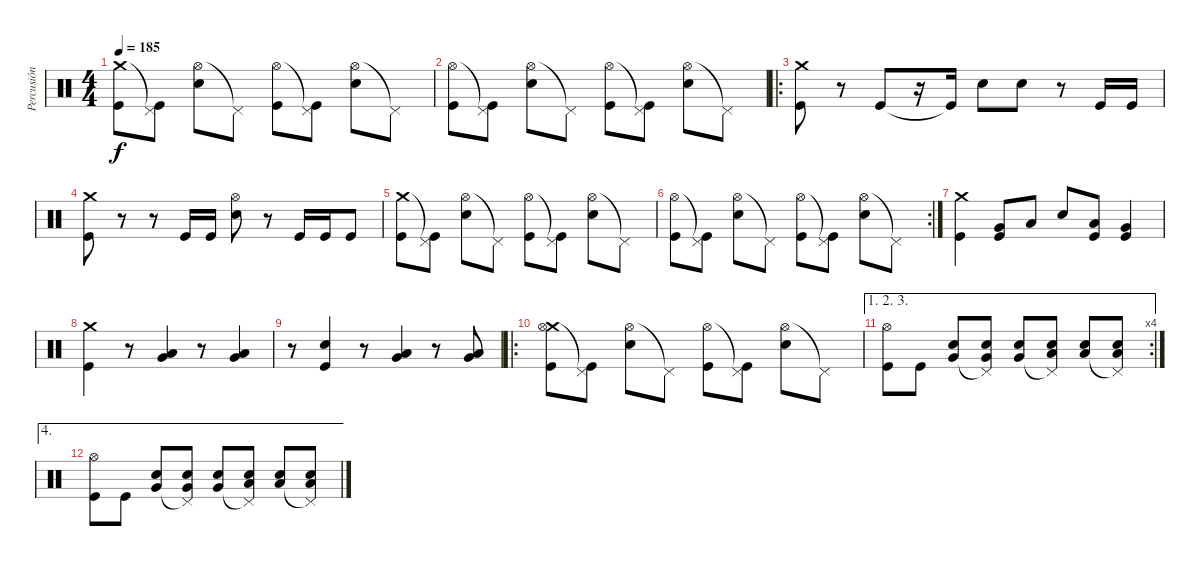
\track ("Percusión" "Percusión") {instrument percussion}
\staff {score}
\articulation defaults
\ts (4 4)
\tempo 185
\clef neutral
\ks c
("Crash medium (hit)" "Kick (hit)").8{dy f} ("Pedal Hi-Hat (hit)"{t} "Kick (hit)").8 ("Hi-Hat (open)" "Electric Snare (hit)").8 "Pedal Hi-Hat (hit)"{t}.8 ("Hi-Hat (open)" "Kick (hit)").8 ("Pedal Hi-Hat (hit)"{t} "Kick (hit)").8 ("Hi-Hat (open)" "Electric Snare (hit)").8 "Pedal Hi-Hat (hit)"{t}.8 |
("Hi-Hat (open)" "Kick (hit)").8 ("Pedal Hi-Hat (hit)"{t} "Kick (hit)").8 ("Hi-Hat (open)" "Electric Snare (hit)").8 "Pedal Hi-Hat (hit)"{t}.8 ("Hi-Hat (open)" "Kick (hit)").8 ("Pedal Hi-Hat (hit)"{t} "Kick (hit)").8 ("Hi-Hat (open)" "Electric Snare (hit)").8 "Pedal Hi-Hat (hit)"{t}.8 |
\ro
("Crash medium (hit)" "Kick (hit)").8 r.8 "Kick (hit)".8 r.16 "Kick (hit)"{t}.16 "Electric Snare (hit)".8 "Electric Snare (hit)".8 r.8 "Kick (hit)".16 "Kick (hit)".16 |
("Crash medium (hit)" "Kick (hit)").8 r.8 r.8 "Kick (hit)".16 "Kick (hit)".16 ("Hi-Hat (open)" "Electric Snare (hit)").8 r.8 "Kick (hit)".16 "Kick (hit)".16 "Kick (hit)".8 |
("Crash medium (hit)" "Kick (hit)").8 ("Pedal Hi-Hat (hit)"{t} "Kick (hit)").8 ("Hi-Hat (open)" "Electric Snare (hit)").8 "Pedal Hi-Hat (hit)"{t}.8 ("Hi-Hat (open)" "Kick (hit)").8 ("Pedal Hi-Hat (hit)"{t} "Kick (hit)").8 ("Hi-Hat (open)" "Electric Snare (hit)").8 "Pedal Hi-Hat (hit)"{t}.8 |
\rc 2
("Hi-Hat (open)" "Kick (hit)").8 ("Pedal Hi-Hat (hit)"{t} "Kick (hit)").8 ("Hi-Hat (open)" "Electric Snare (hit)").8 "Pedal Hi-Hat (hit)"{t}.8 ("Hi-Hat (open)" "Kick (hit)").8 ("Pedal Hi-Hat (hit)"{t} "Kick (hit)").8 ("Hi-Hat (open)" "Electric Snare (hit)").8 "Pedal Hi-Hat (hit)"{t}.8 |
("Crash medium (hit)" "Kick (hit)").4 ("Very Low Tom (hit)" "Kick (hit)").8 "Low Floor Tom (hit)".8 "Electric Snare (hit)".8 ("Low Floor Tom (hit)" "Kick (hit)").8 ("Very Low Tom (hit)" "Kick (hit)").4 |
("Crash medium (hit)" "Kick (hit)").4 r.8 ("Very Low Tom (hit)" "Low Floor Tom (hit)").4 r.8 ("Very Low Tom (hit)" "Low Floor Tom (hit)").4 |
r.8 ("Electric Snare (hit)" "Kick (hit)").4 r.8 ("Very Low Tom (hit)" "Low Floor Tom (hit)").4 r.8 ("Very Low Tom (hit)" "Low Floor Tom (hit)").8 |
\ro
("Crash medium (hit)" "Hi-Hat (open)" "Kick (hit)").8 ("Pedal Hi-Hat (hit)"{t} "Kick (hit)").8 ("Hi-Hat (open)" "Electric Snare (hit)").8 "Pedal Hi-Hat (hit)"{t}.8 ("Hi-Hat (open)" "Kick (hit)").8 ("Pedal Hi-Hat (hit)"{t} "Kick (hit)").8 ("Hi-Hat (open)" "Electric Snare (hit)").8 "Pedal Hi-Hat (hit)"{t}.8 |
\ae (1 2 3)
\rc 4
("Hi-Hat (open)" "Kick (hit)").8 "Kick (hit)".8 ("Very Low Tom (hit)" "Electric Snare (hit)").8 ("Pedal Hi-Hat (hit)"{t} "Very Low Tom (hit)" "Electric Snare (hit)").8 ("Very Low Tom (hit)" "Electric Snare (hit)").8 ("Pedal Hi-Hat (hit)"{t} "Low Floor Tom (hit)" "Electric Snare (hit)").8 ("Low Floor Tom (hit)" "Electric Snare (hit)").8 ("Pedal Hi-Hat (hit)"{t} "Low Floor Tom (hit)" "Electric Snare (hit)").8 |
\ae 4
("Hi-Hat (open)" "Kick (hit)").8 "Kick (hit)".8 ("Very Low Tom (hit)" "Electric Snare (hit)").8 ("Pedal Hi-Hat (hit)"{t} "Very Low Tom (hit)" "Electric Snare (hit)").8 ("Very Low Tom (hit)" "Electric Snare (hit)").8 ("Pedal Hi-Hat (hit)"{t} "Low Floor Tom (hit)" "Electric Snare (hit)").8 ("Low Floor Tom (hit)" "Electric Snare (hit)").8 ("Pedal Hi-Hat (hit)"{t} "Low Floor Tom (hit)" "Electric Snare (hit)").8
